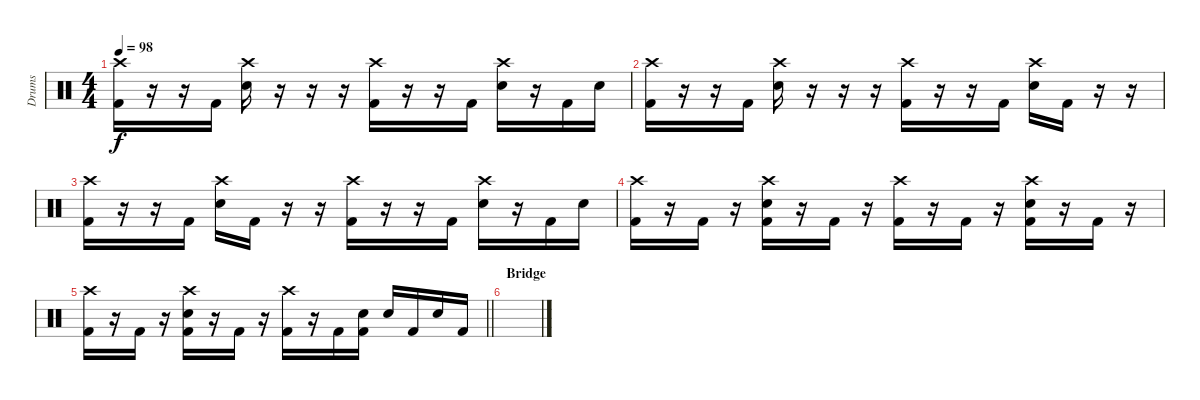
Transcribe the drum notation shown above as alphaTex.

\track ("Drums" "Drums") {instrument percussion}
\staff {score}
\articulation defaults
\ts (4 4)
\tempo 98
\clef neutral
\ks c
("Crash high (hit)" "Kick (hit) 2").16{dy f} r.16 r.16 "Kick (hit) 2".16 ("Crash high (hit)" "Electric Snare (hit)").16 r.16 r.16 r.16 ("Crash high (hit)" "Kick (hit) 2").16 r.16 r.16 "Kick (hit) 2".16 ("Crash high (hit)" "Electric Snare (hit)").16 r.16 "Kick (hit) 2".16 "Electric Snare (hit)".16 |
("Crash high (hit)" "Kick (hit) 2").16 r.16 r.16 "Kick (hit) 2".16 ("Crash high (hit)" "Electric Snare (hit)").16 r.16 r.16 r.16 ("Crash high (hit)" "Kick (hit) 2").16 r.16 r.16 "Kick (hit) 2".16 ("Crash high (hit)" "Electric Snare (hit)").16 "Kick (hit) 2".16 r.16 r.16 |
("Crash high (hit)" "Kick (hit) 2").16 r.16 r.16 "Kick (hit) 2".16 ("Crash high (hit)" "Electric Snare (hit)").16 "Kick (hit) 2".16 r.16 r.16 ("Crash high (hit)" "Kick (hit) 2").16 r.16 r.16 "Kick (hit) 2".16 ("Crash high (hit)" "Electric Snare (hit)").16 r.16 "Kick (hit) 2".16 "Electric Snare (hit)".16 |
("Crash high (hit)" "Kick (hit) 2").16 r.16 "Kick (hit) 2".16 r.16 ("Crash high (hit)" "Electric Snare (hit)" "Kick (hit) 2").16 r.16 "Kick (hit) 2".16 r.16 ("Crash high (hit)" "Kick (hit) 2").16 r.16 "Kick (hit) 2".16 r.16 ("Crash high (hit)" "Electric Snare (hit)" "Kick (hit) 2").16 r.16 "Kick (hit) 2".16 r.16 |
\barLineRight lightlight
("Crash high (hit)" "Kick (hit) 2").16 r.16 "Kick (hit) 2".16 r.16 ("Crash high (hit)" "Electric Snare (hit)" "Kick (hit) 2").16 r.16 "Kick (hit) 2".16 r.16 ("Crash high (hit)" "Kick (hit) 2").16 r.16 "Kick (hit) 2".16 ("Electric Snare (hit)" "Kick (hit) 2").16 "Electric Snare (hit)".16 "Kick (hit) 2".16 "Electric Snare (hit)".16 "Kick (hit) 2".16 |
\section ("" "Bridge")
